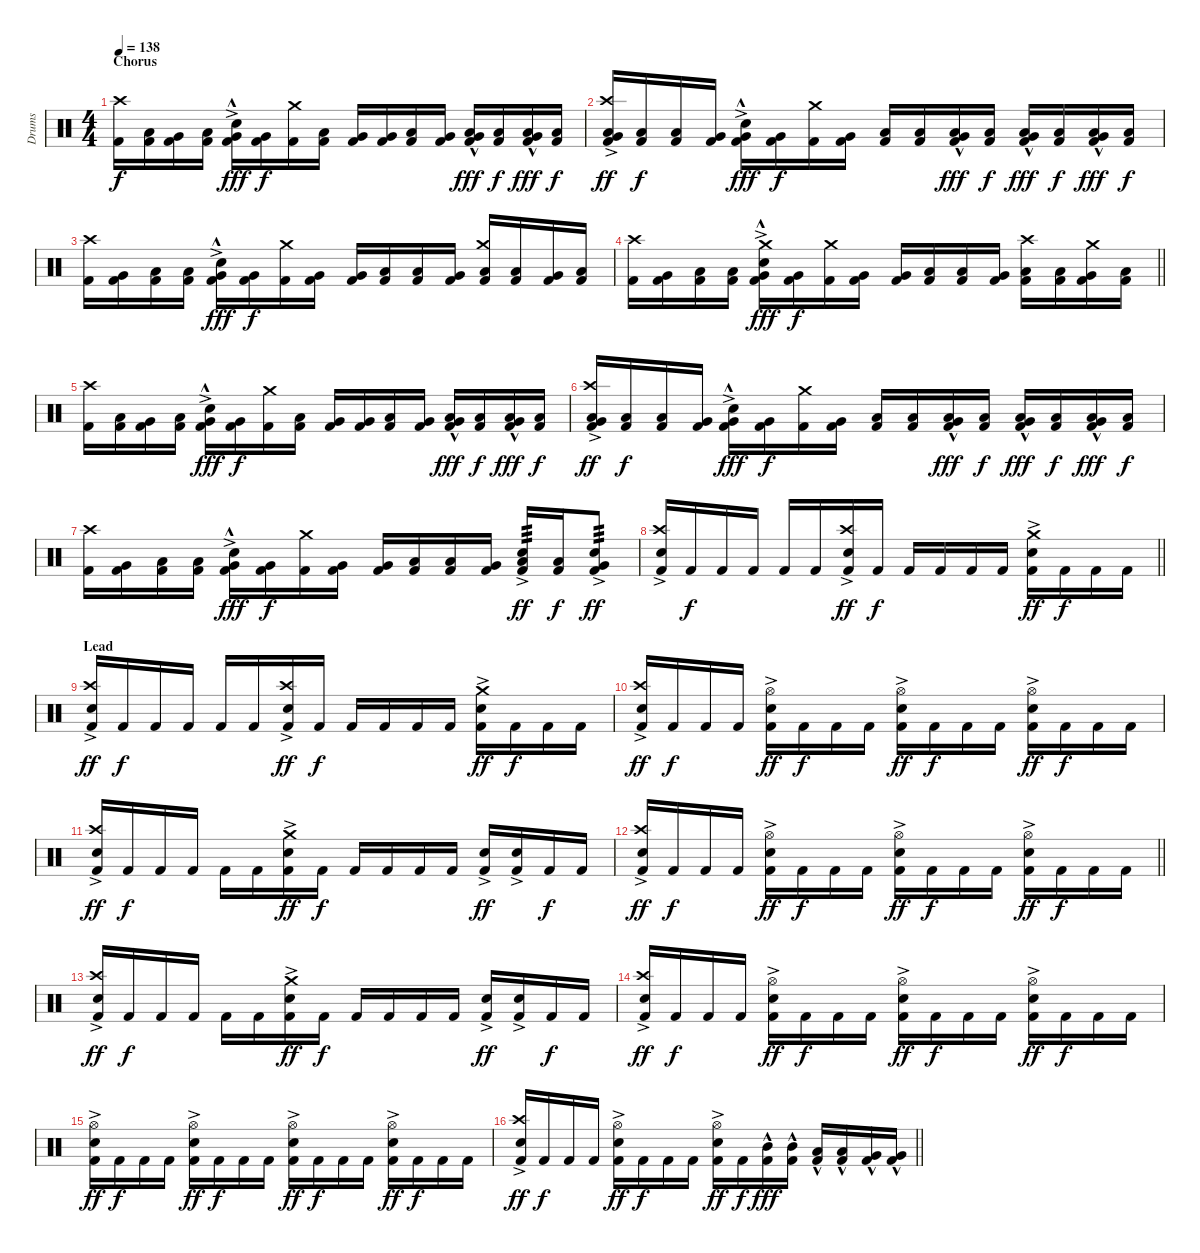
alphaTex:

\track ("Drums" "Drums") {instrument percussion}
\staff {score}
\articulation defaults
\ts (4 4)
\section ("" "Chorus")
\tempo 138
\clef neutral
\ks c
("Kick (hit) 2" "Crash high (hit)").16{dy f} ("Kick (hit) 2" "Low Floor Tom (hit)").16 ("Kick (hit) 2" "Very Low Tom (hit)").16 ("Kick (hit) 2" "Low Floor Tom (hit)").16 ("Kick (hit) 2" "Snare (hit) 2"{ac} "Very Low Tom (hit)"{hac}).16{dy fff} ("Kick (hit) 2" "Very Low Tom (hit)").16{dy f} ("Kick (hit) 2" "Crash medium (hit)").16 ("Kick (hit) 2" "Low Floor Tom (hit)").16 ("Kick (hit) 2" "Very Low Tom (hit)").16 ("Kick (hit) 2" "Very Low Tom (hit)").16 ("Kick (hit) 2" "Low Floor Tom (hit)").16 ("Kick (hit) 2" "Very Low Tom (hit)").16 ("Kick (hit) 2" "Very Low Tom (hit)"{hac} "Low Tom (hit)"{hac}).16{dy fff} ("Kick (hit) 2" "Low Floor Tom (hit)").16{dy f} ("Kick (hit) 2" "Very Low Tom (hit)"{hac} "Low Tom (hit)"{hac}).16{dy fff} ("Kick (hit) 2" "Low Floor Tom (hit)").16{dy f} |
("Kick (hit) 2" "Very Low Tom (hit)"{ac} "Low Floor Tom (hit)"{ac} "Crash high (hit)").16{dy ff} ("Kick (hit) 2" "Low Floor Tom (hit)").16{dy f} ("Kick (hit) 2" "Low Floor Tom (hit)").16 ("Kick (hit) 2" "Very Low Tom (hit)").16 ("Kick (hit) 2" "Snare (hit) 2"{ac} "Very Low Tom (hit)"{hac}).16{dy fff} ("Kick (hit) 2" "Very Low Tom (hit)").16{dy f} ("Kick (hit) 2" "Crash medium (hit)").16 ("Kick (hit) 2" "Very Low Tom (hit)").16 ("Kick (hit) 2" "Low Floor Tom (hit)").16 ("Kick (hit) 2" "Low Floor Tom (hit)").16 ("Kick (hit) 2" "Very Low Tom (hit)"{hac} "Low Tom (hit)"{hac}).16{dy fff} ("Kick (hit) 2" "Low Floor Tom (hit)").16{dy f} ("Kick (hit) 2" "Very Low Tom (hit)"{hac} "Low Tom (hit)"{hac}).16{dy fff} ("Kick (hit) 2" "Low Floor Tom (hit)").16{dy f} ("Kick (hit) 2" "Very Low Tom (hit)"{hac} "Low Tom (hit)"{hac}).16{dy fff} ("Kick (hit) 2" "Low Floor Tom (hit)").16{dy f} |
("Kick (hit) 2" "Crash high (hit)").16 ("Kick (hit) 2" "Very Low Tom (hit)").16 ("Kick (hit) 2" "Low Floor Tom (hit)").16 ("Kick (hit) 2" "Low Floor Tom (hit)").16 ("Kick (hit) 2" "Snare (hit) 2"{ac} "Very Low Tom (hit)"{hac}).16{dy fff} ("Kick (hit) 2" "Very Low Tom (hit)").16{dy f} ("Kick (hit) 2" "Crash medium (hit)").16 ("Kick (hit) 2" "Very Low Tom (hit)").16 ("Kick (hit) 2" "Very Low Tom (hit)").16 ("Kick (hit) 2" "Low Floor Tom (hit)").16 ("Kick (hit) 2" "Low Floor Tom (hit)").16 ("Kick (hit) 2" "Very Low Tom (hit)").16 ("Kick (hit) 2" "Low Tom (hit)" "Crash medium (hit)").16 ("Kick (hit) 2" "Low Floor Tom (hit)").16 ("Kick (hit) 2" "Very Low Tom (hit)").16 ("Kick (hit) 2" "Low Floor Tom (hit)").16 |
\barLineRight lightlight
("Kick (hit) 2" "Crash high (hit)").16 ("Kick (hit) 2" "Very Low Tom (hit)").16 ("Kick (hit) 2" "Low Floor Tom (hit)").16 ("Kick (hit) 2" "Low Floor Tom (hit)").16 ("Kick (hit) 2" "Snare (hit) 2"{ac} "Very Low Tom (hit)"{hac} "Crash medium (hit)").16{dy fff} ("Kick (hit) 2" "Very Low Tom (hit)").16{dy f} ("Kick (hit) 2" "Crash medium (hit)").16 ("Kick (hit) 2" "Very Low Tom (hit)").16 ("Kick (hit) 2" "Very Low Tom (hit)").16 ("Kick (hit) 2" "Low Floor Tom (hit)").16 ("Kick (hit) 2" "Low Floor Tom (hit)").16 ("Kick (hit) 2" "Very Low Tom (hit)").16 ("Kick (hit) 2" "Low Tom (hit)" "Crash high (hit)").16 ("Kick (hit) 2" "Low Floor Tom (hit)").16 ("Kick (hit) 2" "Very Low Tom (hit)" "Crash medium (hit)").16 ("Kick (hit) 2" "Low Floor Tom (hit)").16 |
\section ("" "")
("Kick (hit) 2" "Crash high (hit)").16 ("Kick (hit) 2" "Low Floor Tom (hit)").16 ("Kick (hit) 2" "Very Low Tom (hit)").16 ("Kick (hit) 2" "Low Floor Tom (hit)").16 ("Kick (hit) 2" "Snare (hit) 2"{ac} "Very Low Tom (hit)"{hac}).16{dy fff} ("Kick (hit) 2" "Very Low Tom (hit)").16{dy f} ("Kick (hit) 2" "Crash medium (hit)").16 ("Kick (hit) 2" "Low Floor Tom (hit)").16 ("Kick (hit) 2" "Very Low Tom (hit)").16 ("Kick (hit) 2" "Very Low Tom (hit)").16 ("Kick (hit) 2" "Low Floor Tom (hit)").16 ("Kick (hit) 2" "Very Low Tom (hit)").16 ("Kick (hit) 2" "Very Low Tom (hit)"{hac} "Low Tom (hit)"{hac}).16{dy fff} ("Kick (hit) 2" "Low Floor Tom (hit)").16{dy f} ("Kick (hit) 2" "Very Low Tom (hit)"{hac} "Low Tom (hit)"{hac}).16{dy fff} ("Kick (hit) 2" "Low Floor Tom (hit)").16{dy f} |
("Kick (hit) 2" "Very Low Tom (hit)"{ac} "Low Floor Tom (hit)"{ac} "Crash high (hit)").16{dy ff} ("Kick (hit) 2" "Low Floor Tom (hit)").16{dy f} ("Kick (hit) 2" "Low Floor Tom (hit)").16 ("Kick (hit) 2" "Very Low Tom (hit)").16 ("Kick (hit) 2" "Snare (hit) 2"{ac} "Very Low Tom (hit)"{hac}).16{dy fff} ("Kick (hit) 2" "Very Low Tom (hit)").16{dy f} ("Kick (hit) 2" "Crash medium (hit)").16 ("Kick (hit) 2" "Very Low Tom (hit)").16 ("Kick (hit) 2" "Low Floor Tom (hit)").16 ("Kick (hit) 2" "Low Floor Tom (hit)").16 ("Kick (hit) 2" "Very Low Tom (hit)"{hac} "Low Tom (hit)"{hac}).16{dy fff} ("Kick (hit) 2" "Low Floor Tom (hit)").16{dy f} ("Kick (hit) 2" "Very Low Tom (hit)"{hac} "Low Tom (hit)"{hac}).16{dy fff} ("Kick (hit) 2" "Low Floor Tom (hit)").16{dy f} ("Kick (hit) 2" "Very Low Tom (hit)"{hac} "Low Tom (hit)"{hac}).16{dy fff} ("Kick (hit) 2" "Low Floor Tom (hit)").16{dy f} |
("Kick (hit) 2" "Crash high (hit)").16 ("Kick (hit) 2" "Very Low Tom (hit)").16 ("Kick (hit) 2" "Low Floor Tom (hit)").16 ("Kick (hit) 2" "Low Floor Tom (hit)").16 ("Kick (hit) 2" "Snare (hit) 2"{ac} "Very Low Tom (hit)"{hac}).16{dy fff} ("Kick (hit) 2" "Very Low Tom (hit)").16{dy f} ("Kick (hit) 2" "Crash medium (hit)").16 ("Kick (hit) 2" "Very Low Tom (hit)").16 ("Kick (hit) 2" "Very Low Tom (hit)").16 ("Kick (hit) 2" "Low Floor Tom (hit)").16 ("Kick (hit) 2" "Low Floor Tom (hit)").16 ("Kick (hit) 2" "Very Low Tom (hit)").16 ("Kick (hit) 2" "Snare (hit) 2"{ac} "Low Tom (hit)").16{tp 3 dy ff} ("Kick (hit) 2" "Low Floor Tom (hit)").16{dy f} ("Kick (hit) 2" "Snare (hit) 2"{ac} "Very Low Tom (hit)").8{tp 3 dy ff} |
\barLineRight lightlight
("Kick (hit) 2" "Snare (hit) 2"{ac} "Crash high (hit)").16 "Kick (hit) 2".16{dy f} "Kick (hit) 2".16 "Kick (hit) 2".16 "Kick (hit) 2".16 "Kick (hit) 2".16 ("Kick (hit) 2" "Snare (hit) 2"{ac} "Crash high (hit)").16{dy ff} "Kick (hit) 2".16{dy f} "Kick (hit) 2".16 "Kick (hit) 2".16 "Kick (hit) 2".16 "Kick (hit) 2".16 ("Kick (hit) 2" "Snare (hit) 2"{ac} "Crash medium (hit)").16{dy ff} "Kick (hit) 2".16{dy f} "Kick (hit) 2".16 "Kick (hit) 2".16 |
\section ("" "Lead")
("Kick (hit) 2" "Snare (hit) 2"{ac} "Crash high (hit)").16{dy ff} "Kick (hit) 2".16{dy f} "Kick (hit) 2".16 "Kick (hit) 2".16 "Kick (hit) 2".16 "Kick (hit) 2".16 ("Kick (hit) 2" "Snare (hit) 2"{ac} "Crash high (hit)").16{dy ff} "Kick (hit) 2".16{dy f} "Kick (hit) 2".16 "Kick (hit) 2".16 "Kick (hit) 2".16 "Kick (hit) 2".16 ("Kick (hit) 2" "Snare (hit) 2"{ac} "Crash medium (hit)").16{dy ff} "Kick (hit) 2".16{dy f} "Kick (hit) 2".16 "Kick (hit) 2".16 |
("Kick (hit) 2" "Snare (hit) 2"{ac} "Crash high (hit)").16{dy ff} "Kick (hit) 2".16{dy f} "Kick (hit) 2".16 "Kick (hit) 2".16 ("Kick (hit) 2" "Snare (hit) 2"{ac} "Hi-Hat (open)").16{dy ff} "Kick (hit) 2".16{dy f} "Kick (hit) 2".16 "Kick (hit) 2".16 ("Kick (hit) 2" "Snare (hit) 2"{ac} "Hi-Hat (open)").16{dy ff} "Kick (hit) 2".16{dy f} "Kick (hit) 2".16 "Kick (hit) 2".16 ("Kick (hit) 2" "Snare (hit) 2"{ac} "Hi-Hat (open)").16{dy ff} "Kick (hit) 2".16{dy f} "Kick (hit) 2".16 "Kick (hit) 2".16 |
("Kick (hit) 2" "Snare (hit) 2"{ac} "Crash high (hit)").16{dy ff} "Kick (hit) 2".16{dy f} "Kick (hit) 2".16 "Kick (hit) 2".16 "Kick (hit) 2".16 "Kick (hit) 2".16 ("Kick (hit) 2" "Snare (hit) 2"{ac} "Crash medium (hit)").16{dy ff} "Kick (hit) 2".16{dy f} "Kick (hit) 2".16 "Kick (hit) 2".16 "Kick (hit) 2".16 "Kick (hit) 2".16 ("Kick (hit) 2" "Snare (hit) 2"{ac}).16{dy ff} ("Kick (hit) 2" "Snare (hit) 2"{ac}).16 "Kick (hit) 2".16{dy f} "Kick (hit) 2".16 |
\barLineRight lightlight
("Kick (hit) 2" "Snare (hit) 2"{ac} "Crash high (hit)").16{dy ff} "Kick (hit) 2".16{dy f} "Kick (hit) 2".16 "Kick (hit) 2".16 ("Kick (hit) 2" "Snare (hit) 2"{ac} "Hi-Hat (open)").16{dy ff} "Kick (hit) 2".16{dy f} "Kick (hit) 2".16 "Kick (hit) 2".16 ("Kick (hit) 2" "Snare (hit) 2"{ac} "Hi-Hat (open)").16{dy ff} "Kick (hit) 2".16{dy f} "Kick (hit) 2".16 "Kick (hit) 2".16 ("Kick (hit) 2" "Snare (hit) 2"{ac} "Hi-Hat (open)").16{dy ff} "Kick (hit) 2".16{dy f} "Kick (hit) 2".16 "Kick (hit) 2".16 |
\section ("" "")
("Kick (hit) 2" "Snare (hit) 2"{ac} "Crash high (hit)").16{dy ff} "Kick (hit) 2".16{dy f} "Kick (hit) 2".16 "Kick (hit) 2".16 "Kick (hit) 2".16 "Kick (hit) 2".16 ("Kick (hit) 2" "Snare (hit) 2"{ac} "Crash medium (hit)").16{dy ff} "Kick (hit) 2".16{dy f} "Kick (hit) 2".16 "Kick (hit) 2".16 "Kick (hit) 2".16 "Kick (hit) 2".16 ("Kick (hit) 2" "Snare (hit) 2"{ac}).16{dy ff} ("Kick (hit) 2" "Snare (hit) 2"{ac}).16 "Kick (hit) 2".16{dy f} "Kick (hit) 2".16 |
("Kick (hit) 2" "Snare (hit) 2"{ac} "Crash high (hit)").16{dy ff} "Kick (hit) 2".16{dy f} "Kick (hit) 2".16 "Kick (hit) 2".16 ("Kick (hit) 2" "Snare (hit) 2"{ac} "Hi-Hat (open)").16{dy ff} "Kick (hit) 2".16{dy f} "Kick (hit) 2".16 "Kick (hit) 2".16 ("Kick (hit) 2" "Snare (hit) 2"{ac} "Hi-Hat (open)").16{dy ff} "Kick (hit) 2".16{dy f} "Kick (hit) 2".16 "Kick (hit) 2".16 ("Kick (hit) 2" "Snare (hit) 2"{ac} "Hi-Hat (open)").16{dy ff} "Kick (hit) 2".16{dy f} "Kick (hit) 2".16 "Kick (hit) 2".16 |
("Kick (hit) 2" "Snare (hit) 2"{ac} "Hi-Hat (open)").16{dy ff} "Kick (hit) 2".16{dy f} "Kick (hit) 2".16 "Kick (hit) 2".16 ("Kick (hit) 2" "Snare (hit) 2"{ac} "Hi-Hat (open)").16{dy ff} "Kick (hit) 2".16{dy f} "Kick (hit) 2".16 "Kick (hit) 2".16 ("Kick (hit) 2" "Snare (hit) 2"{ac} "Hi-Hat (open)").16{dy ff} "Kick (hit) 2".16{dy f} "Kick (hit) 2".16 "Kick (hit) 2".16 ("Kick (hit) 2" "Snare (hit) 2"{ac} "Hi-Hat (open)").16{dy ff} "Kick (hit) 2".16{dy f} "Kick (hit) 2".16 "Kick (hit) 2".16 |
\barLineRight lightlight
("Kick (hit) 2" "Snare (hit) 2"{ac} "Crash high (hit)").16{dy ff} "Kick (hit) 2".16{dy f} "Kick (hit) 2".16 "Kick (hit) 2".16 ("Kick (hit) 2" "Snare (hit) 2"{ac} "Hi-Hat (open)").16{dy ff} "Kick (hit) 2".16{dy f} "Kick (hit) 2".16 "Kick (hit) 2".16 ("Kick (hit) 2" "Snare (hit) 2"{ac} "Hi-Hat (open)").16{dy ff} "Kick (hit) 2".16{dy f} ("Kick (hit) 2" "Mid Tom (hit)"{hac}).16{dy fff} ("Kick (hit) 2" "Mid Tom (hit)"{hac}).16 ("Kick (hit) 2" "Low Tom (hit)"{hac}).16 ("Kick (hit) 2" "Low Tom (hit)"{hac}).16 ("Kick (hit) 2" "Very Low Tom (hit)"{hac}).16 ("Kick (hit) 2" "Very Low Tom (hit)"{hac}).16
